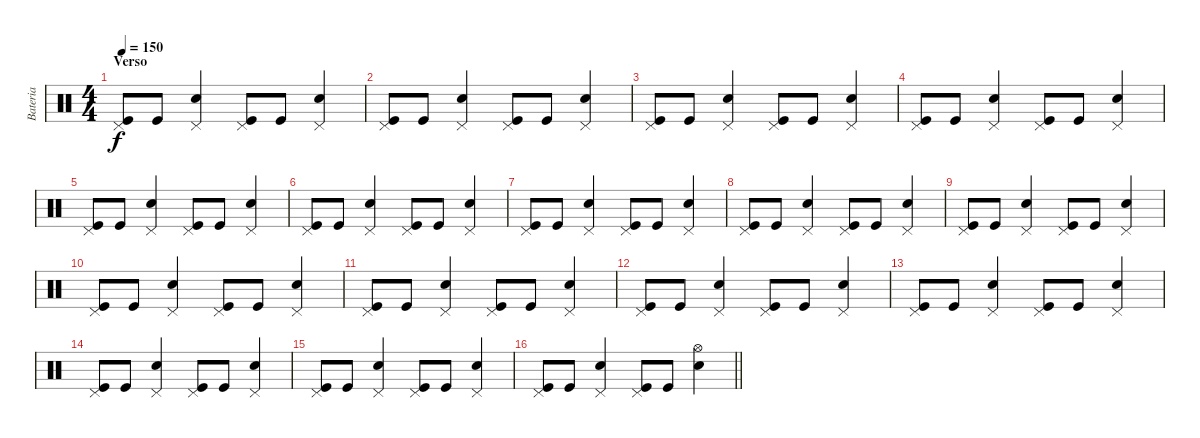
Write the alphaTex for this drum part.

\track ("Bateria" "Bateria") {instrument percussion}
\staff {score}
\articulation defaults
\ts (4 4)
\section ("" "Verso")
\tempo 150
\clef neutral
\ks c
("Pedal Hi-Hat (hit)" "Kick (hit)").8{dy f} "Kick (hit)".8 ("Pedal Hi-Hat (hit)" "Snare (hit) 2").4 ("Pedal Hi-Hat (hit)" "Kick (hit)").8 "Kick (hit)".8 ("Pedal Hi-Hat (hit)" "Snare (hit) 2").4 |
("Pedal Hi-Hat (hit)" "Kick (hit)").8 "Kick (hit)".8 ("Pedal Hi-Hat (hit)" "Snare (hit) 2").4 ("Pedal Hi-Hat (hit)" "Kick (hit)").8 "Kick (hit)".8 ("Pedal Hi-Hat (hit)" "Snare (hit) 2").4 |
("Pedal Hi-Hat (hit)" "Kick (hit)").8 "Kick (hit)".8 ("Pedal Hi-Hat (hit)" "Snare (hit) 2").4 ("Pedal Hi-Hat (hit)" "Kick (hit)").8 "Kick (hit)".8 ("Pedal Hi-Hat (hit)" "Snare (hit) 2").4 |
("Pedal Hi-Hat (hit)" "Kick (hit)").8 "Kick (hit)".8 ("Pedal Hi-Hat (hit)" "Snare (hit) 2").4 ("Pedal Hi-Hat (hit)" "Kick (hit)").8 "Kick (hit)".8 ("Pedal Hi-Hat (hit)" "Snare (hit) 2").4 |
("Pedal Hi-Hat (hit)" "Kick (hit)").8 "Kick (hit)".8 ("Pedal Hi-Hat (hit)" "Snare (hit) 2").4 ("Pedal Hi-Hat (hit)" "Kick (hit)").8 "Kick (hit)".8 ("Pedal Hi-Hat (hit)" "Snare (hit) 2").4 |
("Pedal Hi-Hat (hit)" "Kick (hit)").8 "Kick (hit)".8 ("Pedal Hi-Hat (hit)" "Snare (hit) 2").4 ("Pedal Hi-Hat (hit)" "Kick (hit)").8 "Kick (hit)".8 ("Pedal Hi-Hat (hit)" "Snare (hit) 2").4 |
("Pedal Hi-Hat (hit)" "Kick (hit)").8 "Kick (hit)".8 ("Pedal Hi-Hat (hit)" "Snare (hit) 2").4 ("Pedal Hi-Hat (hit)" "Kick (hit)").8 "Kick (hit)".8 ("Pedal Hi-Hat (hit)" "Snare (hit) 2").4 |
("Pedal Hi-Hat (hit)" "Kick (hit)").8 "Kick (hit)".8 ("Pedal Hi-Hat (hit)" "Snare (hit) 2").4 ("Pedal Hi-Hat (hit)" "Kick (hit)").8 "Kick (hit)".8 ("Pedal Hi-Hat (hit)" "Snare (hit) 2").4 |
("Pedal Hi-Hat (hit)" "Kick (hit)").8 "Kick (hit)".8 ("Pedal Hi-Hat (hit)" "Snare (hit) 2").4 ("Pedal Hi-Hat (hit)" "Kick (hit)").8 "Kick (hit)".8 ("Pedal Hi-Hat (hit)" "Snare (hit) 2").4 |
("Pedal Hi-Hat (hit)" "Kick (hit)").8 "Kick (hit)".8 ("Pedal Hi-Hat (hit)" "Snare (hit) 2").4 ("Pedal Hi-Hat (hit)" "Kick (hit)").8 "Kick (hit)".8 ("Pedal Hi-Hat (hit)" "Snare (hit) 2").4 |
("Pedal Hi-Hat (hit)" "Kick (hit)").8 "Kick (hit)".8 ("Pedal Hi-Hat (hit)" "Snare (hit) 2").4 ("Pedal Hi-Hat (hit)" "Kick (hit)").8 "Kick (hit)".8 ("Pedal Hi-Hat (hit)" "Snare (hit) 2").4 |
("Pedal Hi-Hat (hit)" "Kick (hit)").8 "Kick (hit)".8 ("Pedal Hi-Hat (hit)" "Snare (hit) 2").4 ("Pedal Hi-Hat (hit)" "Kick (hit)").8 "Kick (hit)".8 ("Pedal Hi-Hat (hit)" "Snare (hit) 2").4 |
("Pedal Hi-Hat (hit)" "Kick (hit)").8 "Kick (hit)".8 ("Pedal Hi-Hat (hit)" "Snare (hit) 2").4 ("Pedal Hi-Hat (hit)" "Kick (hit)").8 "Kick (hit)".8 ("Pedal Hi-Hat (hit)" "Snare (hit) 2").4 |
("Pedal Hi-Hat (hit)" "Kick (hit)").8 "Kick (hit)".8 ("Pedal Hi-Hat (hit)" "Snare (hit) 2").4 ("Pedal Hi-Hat (hit)" "Kick (hit)").8 "Kick (hit)".8 ("Pedal Hi-Hat (hit)" "Snare (hit) 2").4 |
("Pedal Hi-Hat (hit)" "Kick (hit)").8 "Kick (hit)".8 ("Pedal Hi-Hat (hit)" "Snare (hit) 2").4 ("Pedal Hi-Hat (hit)" "Kick (hit)").8 "Kick (hit)".8 ("Pedal Hi-Hat (hit)" "Snare (hit) 2").4 |
\barLineRight lightlight
("Pedal Hi-Hat (hit)" "Kick (hit)").8 "Kick (hit)".8 ("Pedal Hi-Hat (hit)" "Snare (hit) 2").4 ("Pedal Hi-Hat (hit)" "Kick (hit)").8 "Kick (hit)".8 ("Hi-Hat (open)" "Snare (hit) 2").4
